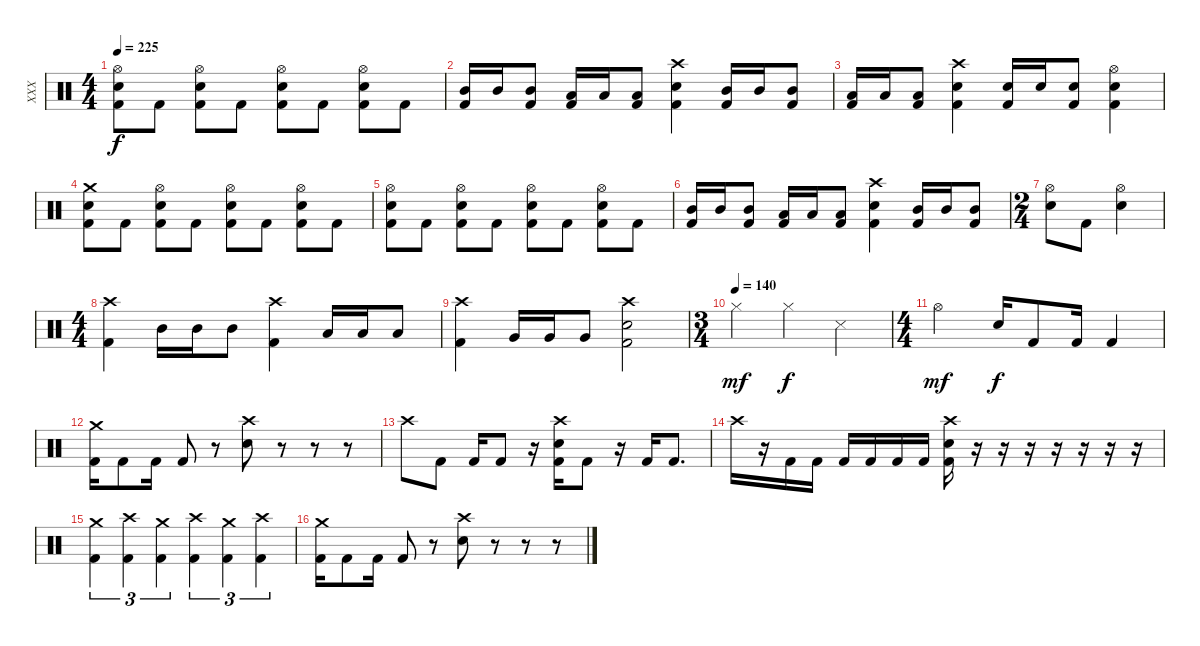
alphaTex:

\track ("XXX" "XXX") {instrument percussion}
\staff {score}
\articulation defaults
\ts (4 4)
\tempo 225
\clef neutral
\ks c
("Hi-Hat (open)" "Electric Snare (hit)" "Kick (hit) 2").8{dy f} "Kick (hit) 2".8 ("Hi-Hat (open)" "Electric Snare (hit)" "Kick (hit) 2").8 "Kick (hit) 2".8 ("Hi-Hat (open)" "Electric Snare (hit)" "Kick (hit) 2").8 "Kick (hit) 2".8 ("Hi-Hat (open)" "Electric Snare (hit)" "Kick (hit) 2").8 "Kick (hit) 2".8 |
("Mid Tom (hit)" "Kick (hit) 2").16 "Mid Tom (hit)".16 ("Mid Tom (hit)" "Kick (hit) 2").8 ("Low Tom (hit)" "Kick (hit) 2").16 "Low Tom (hit)".16 ("Low Tom (hit)" "Kick (hit) 2").8 ("Crash high (hit)" "Electric Snare (hit)" "Kick (hit) 2").4 ("Mid Tom (hit)" "Kick (hit) 2").16 "Mid Tom (hit)".16 ("Mid Tom (hit)" "Kick (hit) 2").8 |
("Low Tom (hit)" "Kick (hit) 2").16 "Low Tom (hit)".16 ("Low Tom (hit)" "Kick (hit) 2").8 ("Crash high (hit)" "Electric Snare (hit)" "Kick (hit) 2").4 ("Electric Snare (hit)" "Kick (hit) 2").16 "Electric Snare (hit)".16 ("Electric Snare (hit)" "Kick (hit) 2").8 ("Hi-Hat (open)" "Electric Snare (hit)" "Kick (hit) 2").4 |
("Crash medium (hit)" "Electric Snare (hit)" "Kick (hit) 2").8 "Kick (hit) 2".8 ("Hi-Hat (open)" "Electric Snare (hit)" "Kick (hit) 2").8 "Kick (hit) 2".8 ("Hi-Hat (open)" "Electric Snare (hit)" "Kick (hit) 2").8 "Kick (hit) 2".8 ("Hi-Hat (open)" "Electric Snare (hit)" "Kick (hit) 2").8 "Kick (hit) 2".8 |
("Hi-Hat (open)" "Electric Snare (hit)" "Kick (hit) 2").8 "Kick (hit) 2".8 ("Hi-Hat (open)" "Electric Snare (hit)" "Kick (hit) 2").8 "Kick (hit) 2".8 ("Hi-Hat (open)" "Electric Snare (hit)" "Kick (hit) 2").8 "Kick (hit) 2".8 ("Hi-Hat (open)" "Electric Snare (hit)" "Kick (hit) 2").8 "Kick (hit) 2".8 |
("Mid Tom (hit)" "Kick (hit) 2").16 "Mid Tom (hit)".16 ("Mid Tom (hit)" "Kick (hit) 2").8 ("Low Tom (hit)" "Kick (hit) 2").16 "Low Tom (hit)".16 ("Low Tom (hit)" "Kick (hit) 2").8 ("Crash high (hit)" "Electric Snare (hit)" "Kick (hit) 2").4 ("Mid Tom (hit)" "Kick (hit) 2").16 "Mid Tom (hit)".16 ("Mid Tom (hit)" "Kick (hit) 2").8 |
\ts (2 4)
("Hi-Hat (open)" "Electric Snare (hit)").8 "Kick (hit) 2".8 ("Hi-Hat (open)" "Electric Snare (hit)").4 |
\ts (4 4)
("Crash high (hit)" "Kick (hit) 2").4 "Mid Tom (hit)".16 "Mid Tom (hit)".16 "Mid Tom (hit)".8 ("Crash high (hit)" "Kick (hit) 2").4 "Low Tom (hit)".16 "Low Tom (hit)".16 "Low Tom (hit)".8 |
("Crash high (hit)" "Kick (hit) 2").4 "Very Low Tom (hit)".16 "Very Low Tom (hit)".16 "Very Low Tom (hit)".8 ("Crash high (hit)" "Electric Snare (hit)" "Kick (hit) 2").2 |
\ts (3 4)
\tempo (140)
"Hi-Hat (closed)".4{dy mf} "Hi-Hat (closed)".4{dy f} "Metronome (hit)".4 |
\ts (4 4)
"Hi-Hat (open)".2{dy mf} "Electric Snare (hit)".16{dy f} "Kick (hit) 2".8 "Kick (hit) 2".16 "Kick (hit) 2".4 |
("Crash medium (hit)" "Kick (hit) 2").16 "Kick (hit) 2".8 "Kick (hit) 2".16 "Kick (hit) 2".8 r.8 ("Crash high (hit)" "Electric Snare (hit)").8 r.8 r.8 r.8 |
"Crash high (hit)".8 "Kick (hit) 2".8 "Kick (hit) 2".16 "Kick (hit) 2".8 r.16 ("Crash high (hit)" "Electric Snare (hit)" "Kick (hit) 2").16 "Kick (hit) 2".8 r.16 "Kick (hit) 2".16 "Kick (hit) 2".8{d} |
"Crash high (hit)".16 r.16 "Kick (hit) 2".16 "Kick (hit) 2".16 "Kick (hit) 2".16 "Kick (hit) 2".16 "Kick (hit) 2".16 "Kick (hit) 2".16 ("Crash high (hit)" "Electric Snare (hit)" "Kick (hit) 2").16 r.16 r.16 r.16 r.16 r.16 r.16 r.16 |
("Crash medium (hit)" "Kick (hit) 2").4{tu (3 2)} ("Crash high (hit)" "Kick (hit) 2").4{tu (3 2)} ("Crash medium (hit)" "Kick (hit) 2").4{tu (3 2)} ("Crash high (hit)" "Kick (hit) 2").4{tu (3 2)} ("Crash medium (hit)" "Kick (hit) 2").4{tu (3 2)} ("Crash high (hit)" "Kick (hit) 2").4{tu (3 2)} |
("Crash medium (hit)" "Kick (hit) 2").16 "Kick (hit) 2".8 "Kick (hit) 2".16 "Kick (hit) 2".8 r.8 ("Crash high (hit)" "Electric Snare (hit)").8 r.8 r.8 r.8
